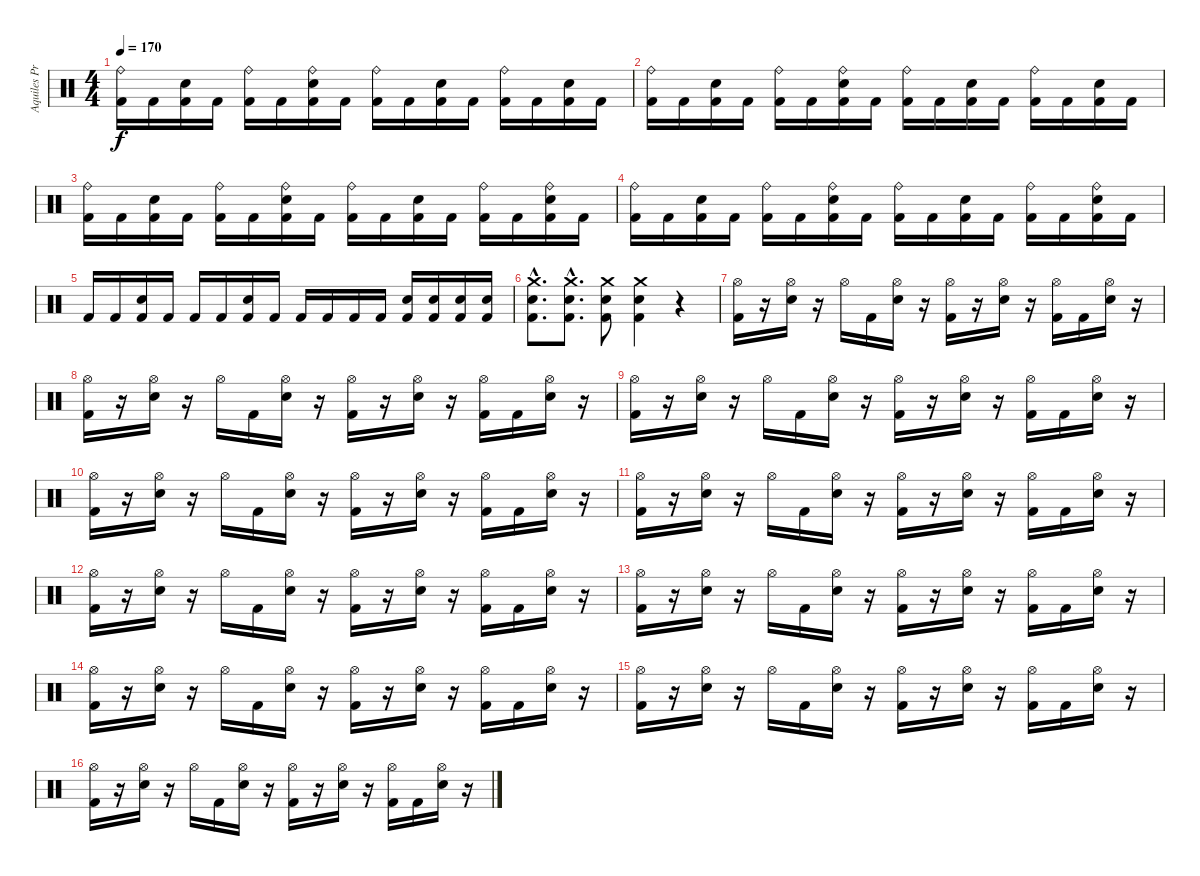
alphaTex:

\track ("Aquiles Priester" "Aquiles Pr") {instrument percussion}
\staff {score}
\articulation defaults
\ts (4 4)
\tempo 170
\clef neutral
\ks c
("Kick (hit) 2" "Ride (bell)").16{dy f} "Kick (hit) 2".16 ("Kick (hit) 2" "Snare (hit) 2").16 "Kick (hit) 2".16 ("Kick (hit) 2" "Ride (bell)").16 "Kick (hit) 2".16 ("Kick (hit) 2" "Snare (hit) 2" "Ride (bell)").16 "Kick (hit) 2".16 ("Kick (hit) 2" "Ride (bell)").16 "Kick (hit) 2".16 ("Kick (hit) 2" "Snare (hit) 2").16 "Kick (hit) 2".16 ("Kick (hit) 2" "Ride (bell)").16 "Kick (hit) 2".16 ("Kick (hit) 2" "Snare (hit) 2").16 "Kick (hit) 2".16 |
("Kick (hit) 2" "Ride (bell)").16 "Kick (hit) 2".16 ("Kick (hit) 2" "Snare (hit) 2").16 "Kick (hit) 2".16 ("Kick (hit) 2" "Ride (bell)").16 "Kick (hit) 2".16 ("Kick (hit) 2" "Snare (hit) 2" "Ride (bell)").16 "Kick (hit) 2".16 ("Kick (hit) 2" "Ride (bell)").16 "Kick (hit) 2".16 ("Kick (hit) 2" "Snare (hit) 2").16 "Kick (hit) 2".16 ("Kick (hit) 2" "Ride (bell)").16 "Kick (hit) 2".16 ("Kick (hit) 2" "Snare (hit) 2").16 "Kick (hit) 2".16 |
("Kick (hit) 2" "Ride (bell)").16 "Kick (hit) 2".16 ("Kick (hit) 2" "Snare (hit) 2").16 "Kick (hit) 2".16 ("Kick (hit) 2" "Ride (bell)").16 "Kick (hit) 2".16 ("Kick (hit) 2" "Snare (hit) 2" "Ride (bell)").16 "Kick (hit) 2".16 ("Kick (hit) 2" "Ride (bell)").16 "Kick (hit) 2".16 ("Kick (hit) 2" "Snare (hit) 2").16 "Kick (hit) 2".16 ("Kick (hit) 2" "Ride (bell)").16 "Kick (hit) 2".16 ("Kick (hit) 2" "Snare (hit) 2" "Ride (bell)").16 "Kick (hit) 2".16 |
("Kick (hit) 2" "Ride (bell)").16 "Kick (hit) 2".16 ("Kick (hit) 2" "Snare (hit) 2").16 "Kick (hit) 2".16 ("Kick (hit) 2" "Ride (bell)").16 "Kick (hit) 2".16 ("Kick (hit) 2" "Snare (hit) 2" "Ride (bell)").16 "Kick (hit) 2".16 ("Kick (hit) 2" "Ride (bell)").16 "Kick (hit) 2".16 ("Kick (hit) 2" "Snare (hit) 2").16 "Kick (hit) 2".16 ("Kick (hit) 2" "Ride (bell)").16 "Kick (hit) 2".16 ("Kick (hit) 2" "Snare (hit) 2" "Ride (bell)").16 "Kick (hit) 2".16 |
"Kick (hit) 2".16 "Kick (hit) 2".16 ("Kick (hit) 2" "Snare (hit) 2").16 "Kick (hit) 2".16 "Kick (hit) 2".16 "Kick (hit) 2".16 ("Kick (hit) 2" "Snare (hit) 2").16 "Kick (hit) 2".16 "Kick (hit) 2".16 "Kick (hit) 2".16 "Kick (hit) 2".16 "Kick (hit) 2".16 ("Kick (hit) 2" "Snare (hit) 2").16 ("Kick (hit) 2" "Snare (hit) 2").16 ("Kick (hit) 2" "Snare (hit) 2").16 ("Kick (hit) 2" "Snare (hit) 2").16 |
("Kick (hit) 2"{hac} "Snare (hit) 2"{hac} "Crash medium (hit)"{hac}).8{d} ("Kick (hit) 2"{hac} "Snare (hit) 2"{hac} "Crash medium (hit)"{hac}).8{d} ("Kick (hit) 2" "Snare (hit) 2" "Crash medium (hit)").8 ("Kick (hit) 2" "Snare (hit) 2" "Crash medium (hit)").4 r.4 |
("Kick (hit) 2" "Hi-Hat (open)").16 r.16 ("Snare (hit) 2" "Hi-Hat (open)").16 r.16 "Hi-Hat (open)".16 "Kick (hit) 2".16 ("Snare (hit) 2" "Hi-Hat (open)").16 r.16 ("Kick (hit) 2" "Hi-Hat (open)").16 r.16 ("Snare (hit) 2" "Hi-Hat (open)").16 r.16 ("Kick (hit) 2" "Hi-Hat (open)").16 "Kick (hit) 2".16 ("Snare (hit) 2" "Hi-Hat (open)").16 r.16 |
("Kick (hit) 2" "Hi-Hat (open)").16 r.16 ("Snare (hit) 2" "Hi-Hat (open)").16 r.16 "Hi-Hat (open)".16 "Kick (hit) 2".16 ("Snare (hit) 2" "Hi-Hat (open)").16 r.16 ("Kick (hit) 2" "Hi-Hat (open)").16 r.16 ("Snare (hit) 2" "Hi-Hat (open)").16 r.16 ("Kick (hit) 2" "Hi-Hat (open)").16 "Kick (hit) 2".16 ("Snare (hit) 2" "Hi-Hat (open)").16 r.16 |
("Kick (hit) 2" "Hi-Hat (open)").16 r.16 ("Snare (hit) 2" "Hi-Hat (open)").16 r.16 "Hi-Hat (open)".16 "Kick (hit) 2".16 ("Snare (hit) 2" "Hi-Hat (open)").16 r.16 ("Kick (hit) 2" "Hi-Hat (open)").16 r.16 ("Snare (hit) 2" "Hi-Hat (open)").16 r.16 ("Kick (hit) 2" "Hi-Hat (open)").16 "Kick (hit) 2".16 ("Snare (hit) 2" "Hi-Hat (open)").16 r.16 |
("Kick (hit) 2" "Hi-Hat (open)").16 r.16 ("Snare (hit) 2" "Hi-Hat (open)").16 r.16 "Hi-Hat (open)".16 "Kick (hit) 2".16 ("Snare (hit) 2" "Hi-Hat (open)").16 r.16 ("Kick (hit) 2" "Hi-Hat (open)").16 r.16 ("Snare (hit) 2" "Hi-Hat (open)").16 r.16 ("Kick (hit) 2" "Hi-Hat (open)").16 "Kick (hit) 2".16 ("Snare (hit) 2" "Hi-Hat (open)").16 r.16 |
("Kick (hit) 2" "Hi-Hat (open)").16 r.16 ("Snare (hit) 2" "Hi-Hat (open)").16 r.16 "Hi-Hat (open)".16 "Kick (hit) 2".16 ("Snare (hit) 2" "Hi-Hat (open)").16 r.16 ("Kick (hit) 2" "Hi-Hat (open)").16 r.16 ("Snare (hit) 2" "Hi-Hat (open)").16 r.16 ("Kick (hit) 2" "Hi-Hat (open)").16 "Kick (hit) 2".16 ("Snare (hit) 2" "Hi-Hat (open)").16 r.16 |
("Kick (hit) 2" "Hi-Hat (open)").16 r.16 ("Snare (hit) 2" "Hi-Hat (open)").16 r.16 "Hi-Hat (open)".16 "Kick (hit) 2".16 ("Snare (hit) 2" "Hi-Hat (open)").16 r.16 ("Kick (hit) 2" "Hi-Hat (open)").16 r.16 ("Snare (hit) 2" "Hi-Hat (open)").16 r.16 ("Kick (hit) 2" "Hi-Hat (open)").16 "Kick (hit) 2".16 ("Snare (hit) 2" "Hi-Hat (open)").16 r.16 |
("Kick (hit) 2" "Hi-Hat (open)").16 r.16 ("Snare (hit) 2" "Hi-Hat (open)").16 r.16 "Hi-Hat (open)".16 "Kick (hit) 2".16 ("Snare (hit) 2" "Hi-Hat (open)").16 r.16 ("Kick (hit) 2" "Hi-Hat (open)").16 r.16 ("Snare (hit) 2" "Hi-Hat (open)").16 r.16 ("Kick (hit) 2" "Hi-Hat (open)").16 "Kick (hit) 2".16 ("Snare (hit) 2" "Hi-Hat (open)").16 r.16 |
("Kick (hit) 2" "Hi-Hat (open)").16 r.16 ("Snare (hit) 2" "Hi-Hat (open)").16 r.16 "Hi-Hat (open)".16 "Kick (hit) 2".16 ("Snare (hit) 2" "Hi-Hat (open)").16 r.16 ("Kick (hit) 2" "Hi-Hat (open)").16 r.16 ("Snare (hit) 2" "Hi-Hat (open)").16 r.16 ("Kick (hit) 2" "Hi-Hat (open)").16 "Kick (hit) 2".16 ("Snare (hit) 2" "Hi-Hat (open)").16 r.16 |
("Kick (hit) 2" "Hi-Hat (open)").16 r.16 ("Snare (hit) 2" "Hi-Hat (open)").16 r.16 "Hi-Hat (open)".16 "Kick (hit) 2".16 ("Snare (hit) 2" "Hi-Hat (open)").16 r.16 ("Kick (hit) 2" "Hi-Hat (open)").16 r.16 ("Snare (hit) 2" "Hi-Hat (open)").16 r.16 ("Kick (hit) 2" "Hi-Hat (open)").16 "Kick (hit) 2".16 ("Snare (hit) 2" "Hi-Hat (open)").16 r.16 |
("Kick (hit) 2" "Hi-Hat (open)").16 r.16 ("Snare (hit) 2" "Hi-Hat (open)").16 r.16 "Hi-Hat (open)".16 "Kick (hit) 2".16 ("Snare (hit) 2" "Hi-Hat (open)").16 r.16 ("Kick (hit) 2" "Hi-Hat (open)").16 r.16 ("Snare (hit) 2" "Hi-Hat (open)").16 r.16 ("Kick (hit) 2" "Hi-Hat (open)").16 "Kick (hit) 2".16 ("Snare (hit) 2" "Hi-Hat (open)").16 r.16
